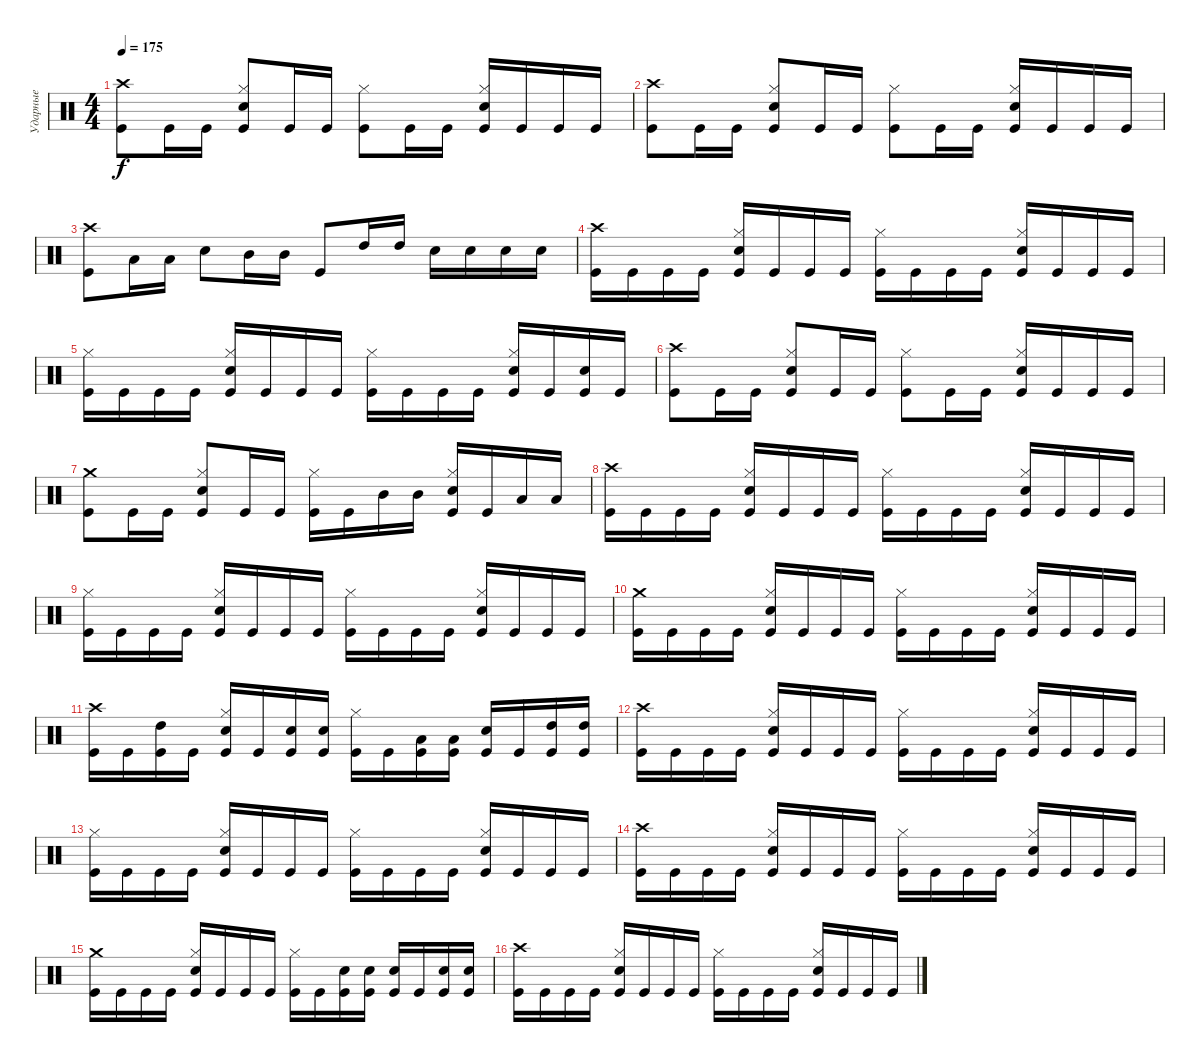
\track ("Ударные" "Ударные") {instrument percussion}
\staff {score}
\articulation defaults
\ts (4 4)
\tempo 175
\clef neutral
\ks c
("Crash high (hit)" "Kick (hit)").8{dy f} "Kick (hit)".16 "Kick (hit)".16 ("Hi-Hat (closed)" "Electric Snare (hit)" "Kick (hit)").8 "Kick (hit)".16 "Kick (hit)".16 ("Hi-Hat (closed)" "Kick (hit)").8 "Kick (hit)".16 "Kick (hit)".16 ("Hi-Hat (closed)" "Electric Snare (hit)" "Kick (hit)").16 "Kick (hit)".16 "Kick (hit)".16 "Kick (hit)".16 |
("Crash high (hit)" "Kick (hit)").8 "Kick (hit)".16 "Kick (hit)".16 ("Hi-Hat (closed)" "Electric Snare (hit)" "Kick (hit)").8 "Kick (hit)".16 "Kick (hit)".16 ("Hi-Hat (closed)" "Kick (hit)").8 "Kick (hit)".16 "Kick (hit)".16 ("Hi-Hat (closed)" "Electric Snare (hit)" "Kick (hit)").16 "Kick (hit)".16 "Kick (hit)".16 "Kick (hit)".16 |
("Crash high (hit)" "Kick (hit)").8 "Low Tom (hit)".16 "Low Tom (hit)".16 "Electric Snare (hit)".8 "Mid Tom (hit)".16 "Mid Tom (hit)".16 "Kick (hit)".8 "High Tom (hit)".16 "High Tom (hit)".16 "Electric Snare (hit)".16 "Electric Snare (hit)".16 "Electric Snare (hit)".16 "Electric Snare (hit)".16 |
("Crash high (hit)" "Kick (hit)").16 "Kick (hit)".16 "Kick (hit)".16 "Kick (hit)".16 ("Hi-Hat (closed)" "Electric Snare (hit)" "Kick (hit)").16 "Kick (hit)".16 "Kick (hit)".16 "Kick (hit)".16 ("Hi-Hat (closed)" "Kick (hit)").16 "Kick (hit)".16 "Kick (hit)".16 "Kick (hit)".16 ("Hi-Hat (closed)" "Electric Snare (hit)" "Kick (hit)").16 "Kick (hit)".16 "Kick (hit)".16 "Kick (hit)".16 |
("Hi-Hat (closed)" "Kick (hit)").16 "Kick (hit)".16 "Kick (hit)".16 "Kick (hit)".16 ("Hi-Hat (closed)" "Electric Snare (hit)" "Kick (hit)").16 "Kick (hit)".16 "Kick (hit)".16 "Kick (hit)".16 ("Hi-Hat (closed)" "Kick (hit)").16 "Kick (hit)".16 "Kick (hit)".16 "Kick (hit)".16 ("Hi-Hat (closed)" "Electric Snare (hit)" "Kick (hit)").16 "Kick (hit)".16 ("Electric Snare (hit)" "Kick (hit)").16 "Kick (hit)".16 |
("Crash high (hit)" "Kick (hit)").8 "Kick (hit)".16 "Kick (hit)".16 ("Hi-Hat (closed)" "Electric Snare (hit)" "Kick (hit)").8 "Kick (hit)".16 "Kick (hit)".16 ("Hi-Hat (closed)" "Kick (hit)").8 "Kick (hit)".16 "Kick (hit)".16 ("Hi-Hat (closed)" "Electric Snare (hit)" "Kick (hit)").16 "Kick (hit)".16 "Kick (hit)".16 "Kick (hit)".16 |
("Crash medium (hit)" "Kick (hit)").8 "Kick (hit)".16 "Kick (hit)".16 ("Hi-Hat (closed)" "Electric Snare (hit)" "Kick (hit)").8 "Kick (hit)".16 "Kick (hit)".16 ("Hi-Hat (closed)" "Kick (hit)").16 "Kick (hit)".16 "Mid Tom (hit)".16 "Mid Tom (hit)".16 ("Hi-Hat (closed)" "Electric Snare (hit)" "Kick (hit)").16 "Kick (hit)".16 "Low Tom (hit)".16 "Low Tom (hit)".16 |
("Crash high (hit)" "Kick (hit)").16 "Kick (hit)".16 "Kick (hit)".16 "Kick (hit)".16 ("Hi-Hat (closed)" "Electric Snare (hit)" "Kick (hit)").16 "Kick (hit)".16 "Kick (hit)".16 "Kick (hit)".16 ("Hi-Hat (closed)" "Kick (hit)").16 "Kick (hit)".16 "Kick (hit)".16 "Kick (hit)".16 ("Hi-Hat (closed)" "Electric Snare (hit)" "Kick (hit)").16 "Kick (hit)".16 "Kick (hit)".16 "Kick (hit)".16 |
("Hi-Hat (closed)" "Kick (hit)").16 "Kick (hit)".16 "Kick (hit)".16 "Kick (hit)".16 ("Hi-Hat (closed)" "Electric Snare (hit)" "Kick (hit)").16 "Kick (hit)".16 "Kick (hit)".16 "Kick (hit)".16 ("Hi-Hat (closed)" "Kick (hit)").16 "Kick (hit)".16 "Kick (hit)".16 "Kick (hit)".16 ("Hi-Hat (closed)" "Electric Snare (hit)" "Kick (hit)").16 "Kick (hit)".16 "Kick (hit)".16 "Kick (hit)".16 |
("Crash medium (hit)" "Kick (hit)").16 "Kick (hit)".16 "Kick (hit)".16 "Kick (hit)".16 ("Hi-Hat (closed)" "Electric Snare (hit)" "Kick (hit)").16 "Kick (hit)".16 "Kick (hit)".16 "Kick (hit)".16 ("Hi-Hat (closed)" "Kick (hit)").16 "Kick (hit)".16 "Kick (hit)".16 "Kick (hit)".16 ("Hi-Hat (closed)" "Electric Snare (hit)" "Kick (hit)").16 "Kick (hit)".16 "Kick (hit)".16 "Kick (hit)".16 |
("Crash high (hit)" "Kick (hit)").16 "Kick (hit)".16 ("High Tom (hit)" "Kick (hit)").16 "Kick (hit)".16 ("Hi-Hat (closed)" "Electric Snare (hit)" "Kick (hit)").16 "Kick (hit)".16 ("Electric Snare (hit)" "Kick (hit)").16 ("Electric Snare (hit)" "Kick (hit)").16 ("Hi-Hat (closed)" "Kick (hit)").16 "Kick (hit)".16 ("Low Tom (hit)" "Kick (hit)").16 ("Low Tom (hit)" "Kick (hit)").16 ("Electric Snare (hit)" "Kick (hit)").16 "Kick (hit)".16 ("High Tom (hit)" "Kick (hit)").16 ("High Tom (hit)" "Kick (hit)").16 |
("Crash high (hit)" "Kick (hit)").16 "Kick (hit)".16 "Kick (hit)".16 "Kick (hit)".16 ("Hi-Hat (closed)" "Electric Snare (hit)" "Kick (hit)").16 "Kick (hit)".16 "Kick (hit)".16 "Kick (hit)".16 ("Hi-Hat (closed)" "Kick (hit)").16 "Kick (hit)".16 "Kick (hit)".16 "Kick (hit)".16 ("Hi-Hat (closed)" "Electric Snare (hit)" "Kick (hit)").16 "Kick (hit)".16 "Kick (hit)".16 "Kick (hit)".16 |
("Hi-Hat (closed)" "Kick (hit)").16 "Kick (hit)".16 "Kick (hit)".16 "Kick (hit)".16 ("Hi-Hat (closed)" "Electric Snare (hit)" "Kick (hit)").16 "Kick (hit)".16 "Kick (hit)".16 "Kick (hit)".16 ("Hi-Hat (closed)" "Kick (hit)").16 "Kick (hit)".16 "Kick (hit)".16 "Kick (hit)".16 ("Hi-Hat (closed)" "Electric Snare (hit)" "Kick (hit)").16 "Kick (hit)".16 "Kick (hit)".16 "Kick (hit)".16 |
("Crash high (hit)" "Kick (hit)").16 "Kick (hit)".16 "Kick (hit)".16 "Kick (hit)".16 ("Hi-Hat (closed)" "Electric Snare (hit)" "Kick (hit)").16 "Kick (hit)".16 "Kick (hit)".16 "Kick (hit)".16 ("Hi-Hat (closed)" "Kick (hit)").16 "Kick (hit)".16 "Kick (hit)".16 "Kick (hit)".16 ("Hi-Hat (closed)" "Electric Snare (hit)" "Kick (hit)").16 "Kick (hit)".16 "Kick (hit)".16 "Kick (hit)".16 |
("Crash medium (hit)" "Kick (hit)").16 "Kick (hit)".16 "Kick (hit)".16 "Kick (hit)".16 ("Hi-Hat (closed)" "Electric Snare (hit)" "Kick (hit)").16 "Kick (hit)".16 "Kick (hit)".16 "Kick (hit)".16 ("Hi-Hat (closed)" "Kick (hit)").16 "Kick (hit)".16 ("Electric Snare (hit)" "Kick (hit)").16 ("Electric Snare (hit)" "Kick (hit)").16 ("Electric Snare (hit)" "Kick (hit)").16 "Kick (hit)".16 ("Electric Snare (hit)" "Kick (hit)").16 ("Electric Snare (hit)" "Kick (hit)").16 |
("Crash high (hit)" "Kick (hit)").16 "Kick (hit)".16 "Kick (hit)".16 "Kick (hit)".16 ("Hi-Hat (closed)" "Electric Snare (hit)" "Kick (hit)").16 "Kick (hit)".16 "Kick (hit)".16 "Kick (hit)".16 ("Hi-Hat (closed)" "Kick (hit)").16 "Kick (hit)".16 "Kick (hit)".16 "Kick (hit)".16 ("Hi-Hat (closed)" "Electric Snare (hit)" "Kick (hit)").16 "Kick (hit)".16 "Kick (hit)".16 "Kick (hit)".16
